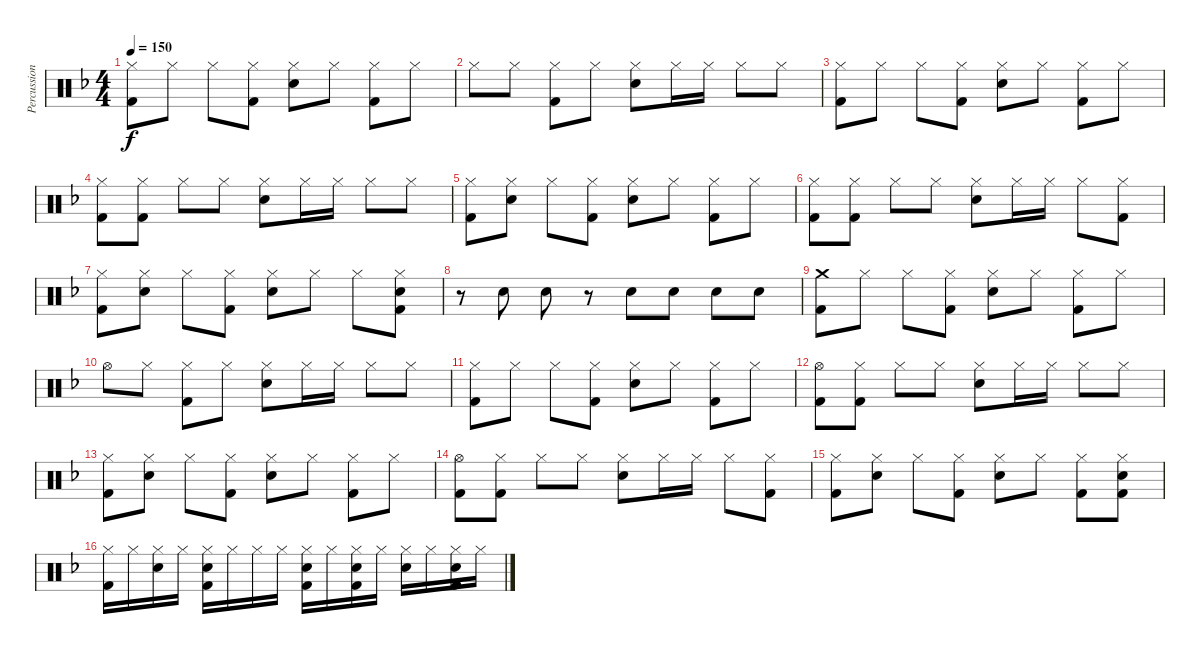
\track ("Percussion" "Percussion") {instrument percussion}
\staff {score}
\articulation defaults
\ts (4 4)
\tempo 150
\clef neutral
\ks f
("Hi-Hat (closed)" "Kick (hit) 2").8{dy f} "Hi-Hat (closed)".8 "Hi-Hat (closed)".8 ("Hi-Hat (closed)" "Kick (hit) 2").8 ("Hi-Hat (closed)" "Electric Snare (hit)").8 "Hi-Hat (closed)".8 ("Hi-Hat (closed)" "Kick (hit) 2").8 "Hi-Hat (closed)".8 |
"Hi-Hat (closed)".8 "Hi-Hat (closed)".8 ("Hi-Hat (closed)" "Kick (hit) 2").8 "Hi-Hat (closed)".8 ("Hi-Hat (closed)" "Electric Snare (hit)").8 "Hi-Hat (closed)".16 "Hi-Hat (closed)".16 "Hi-Hat (closed)".8 "Hi-Hat (closed)".8 |
("Hi-Hat (closed)" "Kick (hit) 2").8 "Hi-Hat (closed)".8 "Hi-Hat (closed)".8 ("Hi-Hat (closed)" "Kick (hit) 2").8 ("Hi-Hat (closed)" "Electric Snare (hit)").8 "Hi-Hat (closed)".8 ("Hi-Hat (closed)" "Kick (hit) 2").8 "Hi-Hat (closed)".8 |
("Hi-Hat (closed)" "Kick (hit) 2").8 ("Hi-Hat (closed)" "Kick (hit) 2").8 "Hi-Hat (closed)".8 "Hi-Hat (closed)".8 ("Hi-Hat (closed)" "Electric Snare (hit)").8 "Hi-Hat (closed)".16 "Hi-Hat (closed)".16 "Hi-Hat (closed)".8 "Hi-Hat (closed)".8 |
("Hi-Hat (closed)" "Kick (hit) 2").8 ("Hi-Hat (closed)" "Electric Snare (hit)").8 "Hi-Hat (closed)".8 ("Hi-Hat (closed)" "Kick (hit) 2").8 ("Hi-Hat (closed)" "Electric Snare (hit)").8 "Hi-Hat (closed)".8 ("Hi-Hat (closed)" "Kick (hit) 2").8 "Hi-Hat (closed)".8 |
("Hi-Hat (closed)" "Kick (hit) 2").8 ("Hi-Hat (closed)" "Kick (hit) 2").8 "Hi-Hat (closed)".8 "Hi-Hat (closed)".8 ("Hi-Hat (closed)" "Electric Snare (hit)").8 "Hi-Hat (closed)".16 "Hi-Hat (closed)".16 "Hi-Hat (closed)".8 ("Hi-Hat (closed)" "Kick (hit) 2").8 |
("Hi-Hat (closed)" "Kick (hit) 2").8 ("Hi-Hat (closed)" "Electric Snare (hit)").8 "Hi-Hat (closed)".8 ("Hi-Hat (closed)" "Kick (hit) 2").8 ("Hi-Hat (closed)" "Electric Snare (hit)").8 "Hi-Hat (closed)".8 "Hi-Hat (closed)".8 ("Hi-Hat (closed)" "Electric Snare (hit)" "Kick (hit) 2").8 |
r.8 "Electric Snare (hit)".8 "Electric Snare (hit)".8 r.8 "Electric Snare (hit)".8 "Electric Snare (hit)".8 "Electric Snare (hit)".8 "Electric Snare (hit)".8 |
("Crash medium (hit)" "Kick (hit) 2").8 "Hi-Hat (closed)".8 "Hi-Hat (closed)".8 ("Hi-Hat (closed)" "Kick (hit) 2").8 ("Hi-Hat (closed)" "Electric Snare (hit)").8 "Hi-Hat (closed)".8 ("Hi-Hat (closed)" "Kick (hit) 2").8 "Hi-Hat (closed)".8 |
"Hi-Hat (open)".8 "Hi-Hat (closed)".8 ("Hi-Hat (closed)" "Kick (hit) 2").8 "Hi-Hat (closed)".8 ("Hi-Hat (closed)" "Electric Snare (hit)").8 "Hi-Hat (closed)".16 "Hi-Hat (closed)".16 "Hi-Hat (closed)".8 "Hi-Hat (closed)".8 |
("Hi-Hat (closed)" "Kick (hit) 2").8 "Hi-Hat (closed)".8 "Hi-Hat (closed)".8 ("Hi-Hat (closed)" "Kick (hit) 2").8 ("Hi-Hat (closed)" "Electric Snare (hit)").8 "Hi-Hat (closed)".8 ("Hi-Hat (closed)" "Kick (hit) 2").8 "Hi-Hat (closed)".8 |
("Hi-Hat (open)" "Kick (hit) 2").8 ("Hi-Hat (closed)" "Kick (hit) 2").8 "Hi-Hat (closed)".8 "Hi-Hat (closed)".8 ("Hi-Hat (closed)" "Electric Snare (hit)").8 "Hi-Hat (closed)".16 "Hi-Hat (closed)".16 "Hi-Hat (closed)".8 "Hi-Hat (closed)".8 |
("Hi-Hat (closed)" "Kick (hit) 2").8 ("Hi-Hat (closed)" "Electric Snare (hit)").8 "Hi-Hat (closed)".8 ("Hi-Hat (closed)" "Kick (hit) 2").8 ("Hi-Hat (closed)" "Electric Snare (hit)").8 "Hi-Hat (closed)".8 ("Hi-Hat (closed)" "Kick (hit) 2").8 "Hi-Hat (closed)".8 |
("Hi-Hat (open)" "Kick (hit) 2").8 ("Hi-Hat (closed)" "Kick (hit) 2").8 "Hi-Hat (closed)".8 "Hi-Hat (closed)".8 ("Hi-Hat (closed)" "Electric Snare (hit)").8 "Hi-Hat (closed)".16 "Hi-Hat (closed)".16 "Hi-Hat (closed)".8 ("Hi-Hat (closed)" "Kick (hit) 2").8 |
("Hi-Hat (closed)" "Kick (hit) 2").8 ("Hi-Hat (closed)" "Electric Snare (hit)").8 "Hi-Hat (closed)".8 ("Hi-Hat (closed)" "Kick (hit) 2").8 ("Hi-Hat (closed)" "Electric Snare (hit)").8 "Hi-Hat (closed)".8 ("Hi-Hat (closed)" "Kick (hit) 2").8 ("Hi-Hat (closed)" "Electric Snare (hit)" "Kick (hit) 2").8 |
("Hi-Hat (closed)" "Kick (hit) 2").16 "Hi-Hat (closed)".16 ("Hi-Hat (closed)" "Electric Snare (hit)").16 "Hi-Hat (closed)".16 ("Hi-Hat (closed)" "Electric Snare (hit)" "Kick (hit) 2").16 "Hi-Hat (closed)".16 "Hi-Hat (closed)".16 "Hi-Hat (closed)".16 ("Hi-Hat (closed)" "Electric Snare (hit)" "Kick (hit) 2").16 "Hi-Hat (closed)".16 ("Hi-Hat (closed)" "Electric Snare (hit)" "Kick (hit) 2").16 "Hi-Hat (closed)".16 ("Hi-Hat (closed)" "Electric Snare (hit)").16 "Hi-Hat (closed)".16 ("Hi-Hat (closed)" "Electric Snare (hit)" "Kick (hit) 2").16 "Hi-Hat (closed)".16
